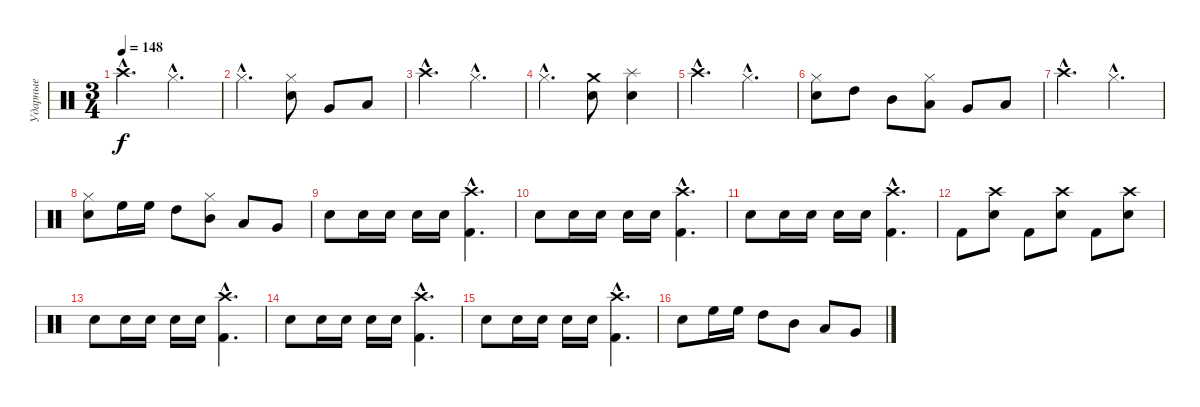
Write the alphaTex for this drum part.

\track ("Ударные" "Ударные") {instrument percussion}
\staff {score}
\articulation defaults
\ts (3 4)
\tempo 148
\clef neutral
\ks c "Crash high (hit)"{hac}.4{d dy f} "Hi-Hat (closed)"{hac}.4{d}
|
"Hi-Hat (closed)"{hac}.4{d} ("Electric Snare (hit)" "Hi-Hat (closed)").8 "Very Low Tom (hit)".8 "Low Floor Tom (hit)".8 |
"Crash high (hit)"{hac}.4{d} "Hi-Hat (closed)"{hac}.4{d} |
"Hi-Hat (closed)"{hac}.4{d} ("Electric Snare (hit)" "Crash medium (hit)").8 ("Electric Snare (hit)" "Splash (hit)").4 |
"Crash high (hit)"{hac}.4{d} "Hi-Hat (closed)"{hac}.4{d} |
("Electric Snare (hit)" "Hi-Hat (closed)").8 "High Tom (hit)".8 "Mid Tom (hit)".8 ("Low Tom (hit)" "Hi-Hat (closed)").8 "Very Low Tom (hit)".8 "Low Floor Tom (hit)".8 |
"Crash high (hit)"{hac}.4{d} "Hi-Hat (closed)"{hac}.4{d} |
("Hi-Hat (closed)" "Electric Snare (hit)").8 "High Floor Tom (hit)".16 "High Floor Tom (hit)".16 "High Tom (hit)".8 ("Hi-Hat (closed)" "Mid Tom (hit)").8 "Low Tom (hit)".8 "Very Low Tom (hit)".8 |
"Electric Snare (hit)".8 "Electric Snare (hit)".16 "Electric Snare (hit)".16 "Electric Snare (hit)".16 "Electric Snare (hit)".16 ("Crash high (hit)"{hac} "Kick (hit) 2"{hac}).4{d} |
"Electric Snare (hit)".8 "Electric Snare (hit)".16 "Electric Snare (hit)".16 "Electric Snare (hit)".16 "Electric Snare (hit)".16 ("Crash high (hit)"{hac} "Kick (hit) 2"{hac}).4{d} |
"Electric Snare (hit)".8 "Electric Snare (hit)".16 "Electric Snare (hit)".16 "Electric Snare (hit)".16 "Electric Snare (hit)".16 ("Crash high (hit)"{hac} "Kick (hit) 2"{hac}).4{d} |
"Kick (hit) 2".8 ("Crash high (hit)" "Electric Snare (hit)").8 "Kick (hit) 2".8 ("Crash high (hit)" "Electric Snare (hit)").8 "Kick (hit) 2".8 ("Crash high (hit)" "Electric Snare (hit)").8 |
"Electric Snare (hit)".8 "Electric Snare (hit)".16 "Electric Snare (hit)".16 "Electric Snare (hit)".16 "Electric Snare (hit)".16 ("Crash high (hit)"{hac} "Kick (hit) 2"{hac}).4{d} |
"Electric Snare (hit)".8 "Electric Snare (hit)".16 "Electric Snare (hit)".16 "Electric Snare (hit)".16 "Electric Snare (hit)".16 ("Crash high (hit)"{hac} "Kick (hit) 2"{hac}).4{d} |
"Electric Snare (hit)".8 "Electric Snare (hit)".16 "Electric Snare (hit)".16 "Electric Snare (hit)".16 "Electric Snare (hit)".16 ("Crash high (hit)"{hac} "Kick (hit) 2"{hac}).4{d} |
"Electric Snare (hit)".8 "High Floor Tom (hit)".16 "High Floor Tom (hit)".16 "High Tom (hit)".8 "Mid Tom (hit)".8 "Low Tom (hit)".8 "Very Low Tom (hit)".8
